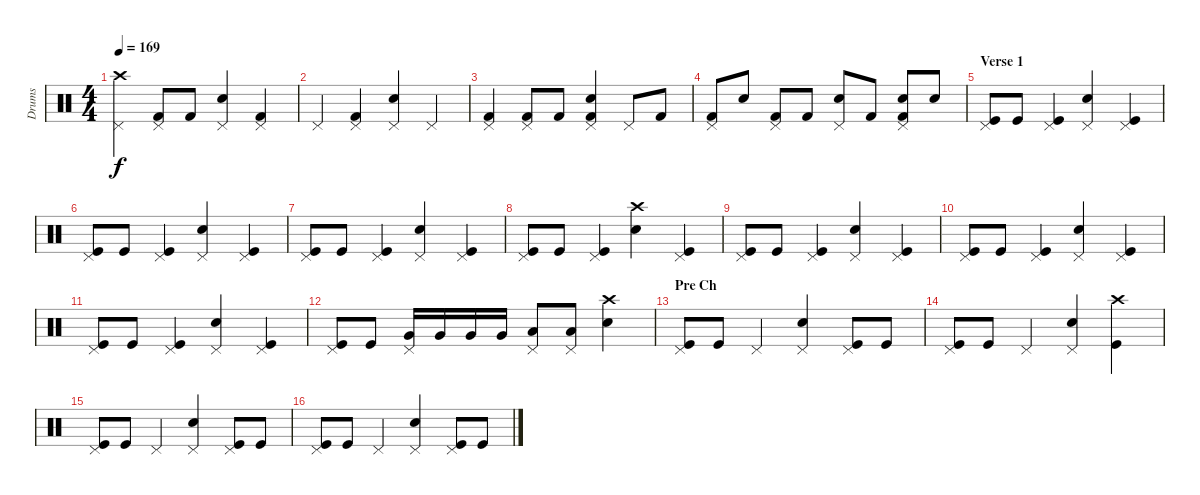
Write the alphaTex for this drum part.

\track ("Drums" "Drums") {instrument percussion}
\staff {score}
\articulation defaults
\ts (4 4)
\tempo 169
\clef neutral
\ks c
("Crash high (hit)" "Pedal Hi-Hat (hit)").4{dy f} ("Pedal Hi-Hat (hit)" "Kick (hit) 2").8 "Kick (hit) 2".8 ("Pedal Hi-Hat (hit)" "Snare (hit) 2").4 ("Pedal Hi-Hat (hit)" "Kick (hit) 2").4 |
"Pedal Hi-Hat (hit)".4 ("Pedal Hi-Hat (hit)" "Kick (hit) 2").4 ("Pedal Hi-Hat (hit)" "Snare (hit) 2").4 "Pedal Hi-Hat (hit)".4 |
("Pedal Hi-Hat (hit)" "Kick (hit) 2").4 ("Pedal Hi-Hat (hit)" "Kick (hit) 2").8 "Kick (hit) 2".8 ("Pedal Hi-Hat (hit)" "Snare (hit) 2" "Kick (hit) 2").4 "Pedal Hi-Hat (hit)".8 "Kick (hit) 2".8 |
("Pedal Hi-Hat (hit)" "Kick (hit) 2").8 "Snare (hit) 2".8 ("Pedal Hi-Hat (hit)" "Kick (hit) 2").8 "Kick (hit) 2".8 ("Pedal Hi-Hat (hit)" "Snare (hit) 2").8 "Kick (hit) 2".8 ("Pedal Hi-Hat (hit)" "Snare (hit) 2" "Kick (hit) 2").8 "Snare (hit) 2".8 |
\section ("" "Verse 1")
("Pedal Hi-Hat (hit)" "Kick (hit)").8 "Kick (hit)".8 ("Pedal Hi-Hat (hit)" "Kick (hit)").4 ("Pedal Hi-Hat (hit)" "Snare (hit) 2").4 ("Pedal Hi-Hat (hit)" "Kick (hit)").4 |
("Pedal Hi-Hat (hit)" "Kick (hit)").8 "Kick (hit)".8 ("Pedal Hi-Hat (hit)" "Kick (hit)").4 ("Pedal Hi-Hat (hit)" "Snare (hit) 2").4 ("Pedal Hi-Hat (hit)" "Kick (hit)").4 |
("Pedal Hi-Hat (hit)" "Kick (hit)").8 "Kick (hit)".8 ("Pedal Hi-Hat (hit)" "Kick (hit)").4 ("Pedal Hi-Hat (hit)" "Snare (hit) 2").4 ("Pedal Hi-Hat (hit)" "Kick (hit)").4 |
("Pedal Hi-Hat (hit)" "Kick (hit)").8 "Kick (hit)".8 ("Pedal Hi-Hat (hit)" "Kick (hit)").4 ("Crash high (hit)" "Snare (hit) 2").4 ("Pedal Hi-Hat (hit)" "Kick (hit)").4 |
("Pedal Hi-Hat (hit)" "Kick (hit)").8 "Kick (hit)".8 ("Pedal Hi-Hat (hit)" "Kick (hit)").4 ("Pedal Hi-Hat (hit)" "Snare (hit) 2").4 ("Pedal Hi-Hat (hit)" "Kick (hit)").4 |
("Pedal Hi-Hat (hit)" "Kick (hit)").8 "Kick (hit)".8 ("Pedal Hi-Hat (hit)" "Kick (hit)").4 ("Pedal Hi-Hat (hit)" "Snare (hit) 2").4 ("Pedal Hi-Hat (hit)" "Kick (hit)").4 |
("Pedal Hi-Hat (hit)" "Kick (hit)").8 "Kick (hit)".8 ("Pedal Hi-Hat (hit)" "Kick (hit)").4 ("Pedal Hi-Hat (hit)" "Snare (hit) 2").4 ("Pedal Hi-Hat (hit)" "Kick (hit)").4 |
("Pedal Hi-Hat (hit)" "Kick (hit)").8 "Kick (hit)".8 ("Pedal Hi-Hat (hit)" "Very Low Tom (hit)").16 "Very Low Tom (hit)".16 "Very Low Tom (hit)".16 "Very Low Tom (hit)".16 ("Pedal Hi-Hat (hit)" "Low Floor Tom (hit)").8 ("Pedal Hi-Hat (hit)" "Low Floor Tom (hit)").8 ("Crash high (hit)" "Snare (hit) 2").4 |
\section ("" "Pre Ch")
("Pedal Hi-Hat (hit)" "Kick (hit)").8 "Kick (hit)".8 "Pedal Hi-Hat (hit)".4 ("Pedal Hi-Hat (hit)" "Electric Snare (hit)").4 ("Pedal Hi-Hat (hit)" "Kick (hit)").8 "Kick (hit)".8 |
("Pedal Hi-Hat (hit)" "Kick (hit)").8 "Kick (hit)".8 "Pedal Hi-Hat (hit)".4 ("Pedal Hi-Hat (hit)" "Electric Snare (hit)").4 ("Crash high (hit)" "Kick (hit)").4 |
("Pedal Hi-Hat (hit)" "Kick (hit)").8 "Kick (hit)".8 "Pedal Hi-Hat (hit)".4 ("Pedal Hi-Hat (hit)" "Electric Snare (hit)").4 ("Pedal Hi-Hat (hit)" "Kick (hit)").8 "Kick (hit)".8 |
("Pedal Hi-Hat (hit)" "Kick (hit)").8 "Kick (hit)".8 "Pedal Hi-Hat (hit)".4 ("Pedal Hi-Hat (hit)" "Electric Snare (hit)").4 ("Pedal Hi-Hat (hit)" "Kick (hit)").8 "Kick (hit)".8
